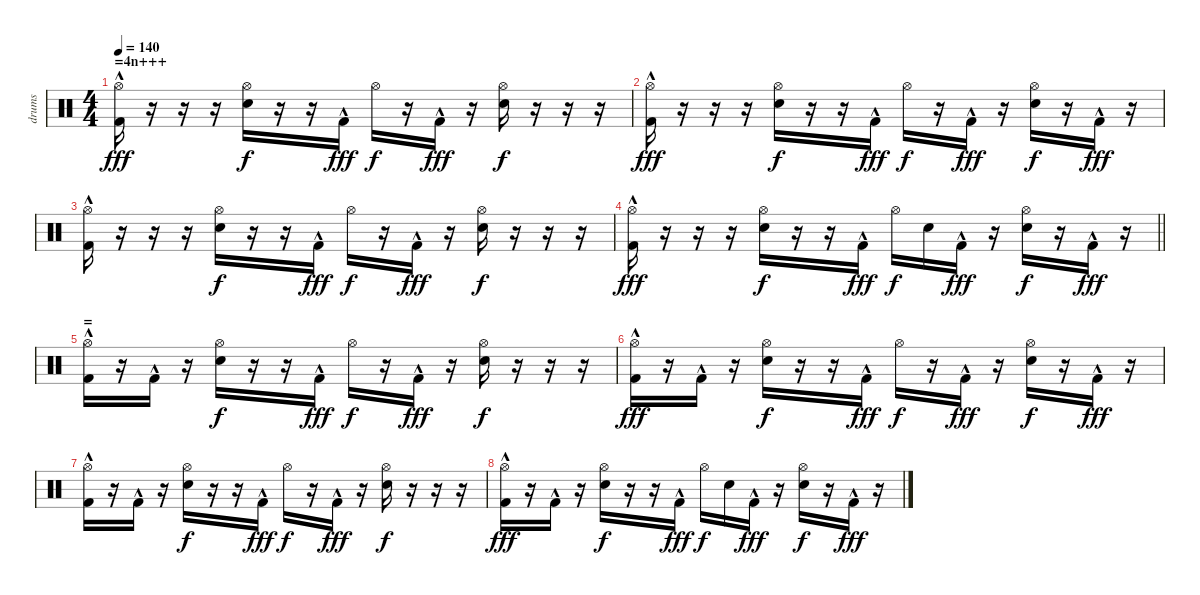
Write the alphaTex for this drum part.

\track ("drums" "drums") {instrument percussion}
\staff {score}
\articulation defaults
\ts (4 4)
\section ("" "=4n+++")
\tempo 140
\clef neutral
\ks c
("Kick (hit) 2"{hac} "Hi-Hat (open)").16{dy fff} r.16 r.16 r.16 ("Electric Snare (hit)" "Hi-Hat (open)").16{dy f} r.16 r.16 "Kick (hit) 2"{hac}.16{dy fff} "Hi-Hat (open)".16{dy f} r.16 "Kick (hit) 2"{hac}.16{dy fff} r.16 ("Electric Snare (hit)" "Hi-Hat (open)").16{dy f} r.16 r.16 r.16 |
("Kick (hit) 2"{hac} "Hi-Hat (open)").16{dy fff} r.16 r.16 r.16 ("Electric Snare (hit)" "Hi-Hat (open)").16{dy f} r.16 r.16 "Kick (hit) 2"{hac}.16{dy fff} "Hi-Hat (open)".16{dy f} r.16 "Kick (hit) 2"{hac}.16{dy fff} r.16 ("Electric Snare (hit)" "Hi-Hat (open)").16{dy f} r.16 "Kick (hit) 2"{hac}.16{dy fff} r.16 |
("Kick (hit) 2"{hac} "Hi-Hat (open)").16 r.16 r.16 r.16 ("Electric Snare (hit)" "Hi-Hat (open)").16{dy f} r.16 r.16 "Kick (hit) 2"{hac}.16{dy fff} "Hi-Hat (open)".16{dy f} r.16 "Kick (hit) 2"{hac}.16{dy fff} r.16 ("Electric Snare (hit)" "Hi-Hat (open)").16{dy f} r.16 r.16 r.16 |
\barLineRight lightlight
("Kick (hit) 2"{hac} "Hi-Hat (open)").16{dy fff} r.16 r.16 r.16 ("Electric Snare (hit)" "Hi-Hat (open)").16{dy f} r.16 r.16 "Kick (hit) 2"{hac}.16{dy fff} "Hi-Hat (open)".16{dy f} "Electric Snare (hit)".16 "Kick (hit) 2"{hac}.16{dy fff} r.16 ("Electric Snare (hit)" "Hi-Hat (open)").16{dy f} r.16 "Kick (hit) 2"{hac}.16{dy fff} r.16 |
\section ("" "=")
("Kick (hit) 2"{hac} "Hi-Hat (open)").16 r.16 "Kick (hit) 2"{hac}.16 r.16 ("Electric Snare (hit)" "Hi-Hat (open)").16{dy f} r.16 r.16 "Kick (hit) 2"{hac}.16{dy fff} "Hi-Hat (open)".16{dy f} r.16 "Kick (hit) 2"{hac}.16{dy fff} r.16 ("Electric Snare (hit)" "Hi-Hat (open)").16{dy f} r.16 r.16 r.16 |
("Kick (hit) 2"{hac} "Hi-Hat (open)").16{dy fff} r.16 "Kick (hit) 2"{hac}.16 r.16 ("Electric Snare (hit)" "Hi-Hat (open)").16{dy f} r.16 r.16 "Kick (hit) 2"{hac}.16{dy fff} "Hi-Hat (open)".16{dy f} r.16 "Kick (hit) 2"{hac}.16{dy fff} r.16 ("Electric Snare (hit)" "Hi-Hat (open)").16{dy f} r.16 "Kick (hit) 2"{hac}.16{dy fff} r.16 |
("Kick (hit) 2"{hac} "Hi-Hat (open)").16 r.16 "Kick (hit) 2"{hac}.16 r.16 ("Electric Snare (hit)" "Hi-Hat (open)").16{dy f} r.16 r.16 "Kick (hit) 2"{hac}.16{dy fff} "Hi-Hat (open)".16{dy f} r.16 "Kick (hit) 2"{hac}.16{dy fff} r.16 ("Electric Snare (hit)" "Hi-Hat (open)").16{dy f} r.16 r.16 r.16 |
("Kick (hit) 2"{hac} "Hi-Hat (open)").16{dy fff} r.16 "Kick (hit) 2"{hac}.16 r.16 ("Electric Snare (hit)" "Hi-Hat (open)").16{dy f} r.16 r.16 "Kick (hit) 2"{hac}.16{dy fff} "Hi-Hat (open)".16{dy f} "Electric Snare (hit)".16 "Kick (hit) 2"{hac}.16{dy fff} r.16 ("Electric Snare (hit)" "Hi-Hat (open)").16{dy f} r.16 "Kick (hit) 2"{hac}.16{dy fff} r.16
